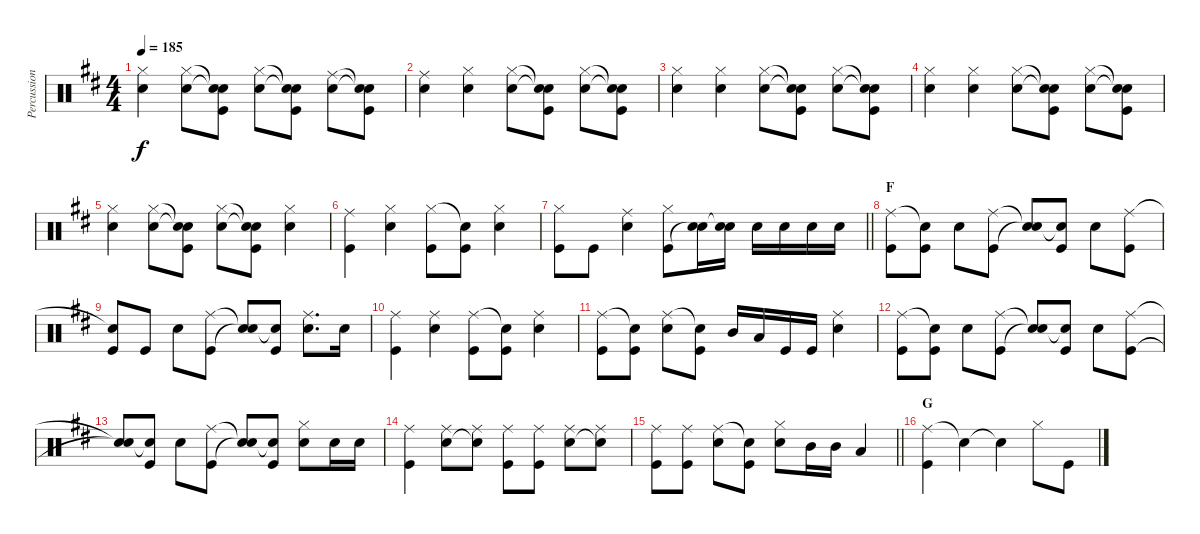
\track ("Percussion" "Percussion") {instrument percussion}
\staff {score}
\articulation defaults
\ts (4 4)
\tempo 185
\clef neutral
\ks d
("Hi-Hat (closed)" "Snare (hit) 2").4{dy f} ("Hi-Hat (closed)" "Snare (hit) 2").8 ("Snare (hit)"{t} "Snare (hit)"{t} "Kick (hit)").8 ("Hi-Hat (closed)" "Snare (hit) 2").8 ("Snare (hit)"{t} "Snare (hit)"{t} "Kick (hit)").8 ("Ride (middle)" "Snare (hit) 2").8 ("Snare (hit)"{t} "Snare (hit)"{t} "Kick (hit)").8 |
("Ride (middle)" "Snare (hit) 2").4 ("Hi-Hat (closed)" "Snare (hit) 2").4 ("Hi-Hat (closed)" "Snare (hit) 2").8 ("Snare (hit)"{t} "Snare (hit)"{t} "Kick (hit)").8 ("Hi-Hat (closed)" "Snare (hit) 2").8 ("Snare (hit)"{t} "Snare (hit)"{t} "Kick (hit)").8 |
("Hi-Hat (closed)" "Snare (hit) 2").4 ("Hi-Hat (closed)" "Snare (hit) 2").4 ("Hi-Hat (closed)" "Snare (hit) 2").8 ("Snare (hit)"{t} "Snare (hit)"{t} "Kick (hit)").8 ("Hi-Hat (closed)" "Snare (hit) 2").8 ("Snare (hit)"{t} "Snare (hit)"{t} "Kick (hit)").8 |
("Hi-Hat (closed)" "Snare (hit) 2").4 ("Hi-Hat (closed)" "Snare (hit) 2").4 ("Hi-Hat (closed)" "Snare (hit) 2").8 ("Snare (hit)"{t} "Snare (hit)"{t} "Kick (hit)").8 ("Hi-Hat (closed)" "Snare (hit) 2").8 ("Snare (hit)"{t} "Snare (hit)"{t} "Kick (hit)").8 |
("Hi-Hat (closed)" "Snare (hit) 2").4 ("Hi-Hat (closed)" "Snare (hit) 2").8 ("Snare (hit)"{t} "Snare (hit)"{t} "Kick (hit)").8 ("Hi-Hat (closed)" "Snare (hit) 2").8 ("Snare (hit)"{t} "Snare (hit)"{t} "Kick (hit)").8 ("Hi-Hat (closed)" "Snare (hit) 2").4 |
("Ride (middle)" "Kick (hit)").4 ("Hi-Hat (closed)" "Snare (hit) 2").4 ("Hi-Hat (closed)" "Kick (hit)").8 ("Snare (hit)"{t} "Kick (hit)").8 ("Hi-Hat (closed)" "Snare (hit) 2").4 |
\barLineRight lightlight
("Hi-Hat (closed)" "Kick (hit)").8 "Kick (hit)".8 ("Ride (middle)" "Snare (hit) 2").4 ("Hi-Hat (closed)" "Kick (hit)").8 ("Snare (hit) 2" "Snare (hit)"{t}).16 ("Snare (hit) 2" "Snare (hit)"{t}).16 "Snare (hit) 2".16 "Snare (hit) 2".16 "Snare (hit) 2".16 "Snare (hit) 2".16 |
\section ("" "F")
("Ride (middle)" "Kick (hit)").8 ("Snare (hit)"{t} "Kick (hit)").8 "Snare (hit) 2".8 ("Ride (middle)" "Kick (hit)").8 ("Snare (hit)"{t} "Snare (hit)"{t}).8 ("Snare (hit)"{t} "Kick (hit)").8 "Snare (hit) 2".8 ("Ride (middle)" "Kick (hit)").8 |
("Snare (hit)"{t} "Kick (hit)").8 "Kick (hit)".8 "Snare (hit) 2".8 ("Ride (middle)" "Kick (hit)").8 ("Snare (hit)"{t} "Snare (hit)"{t}).8 ("Snare (hit)"{t} "Kick (hit)").8 ("Ride (middle)" "Snare (hit) 2").8{d} "Snare (hit) 2".16 |
("Ride (middle)" "Kick (hit)").4 ("Ride (middle)" "Snare (hit) 2").4 ("Ride (middle)" "Kick (hit)").8 ("Snare (hit)"{t} "Kick (hit)").8 ("Ride (middle)" "Snare (hit) 2").4 |
("Ride (middle)" "Kick (hit)").8 ("Snare (hit)"{t} "Kick (hit)").8 ("Ride (middle)" "Snare (hit) 2").8 ("Snare (hit)"{t} "Kick (hit)").8 "Mid Tom (hit)".16 "Low Tom (hit)".16 "Kick (hit)".16 "Kick (hit)".16 ("Ride (middle)" "Snare (hit) 2").4 |
("Ride (middle)" "Kick (hit)").8 ("Snare (hit)"{t} "Kick (hit)").8 "Snare (hit) 2".8 ("Ride (middle)" "Kick (hit)").8 ("Snare (hit)"{t} "Snare (hit)"{t}).8 ("Snare (hit)"{t} "Kick (hit)").8 "Snare (hit) 2".8 ("Ride (middle)" "Kick (hit)").8 |
("Snare (hit)"{t} "Snare (hit)"{t}).8 ("Snare (hit)"{t} "Kick (hit)").8 "Snare (hit) 2".8 ("Ride (middle)" "Kick (hit)").8 ("Snare (hit)"{t} "Snare (hit)"{t}).8 ("Snare (hit)"{t} "Kick (hit)").8 ("Hi-Hat (closed)" "Snare (hit) 2").8 "Snare (hit) 2".16 "Snare (hit) 2".16 |
("Ride (middle)" "Kick (hit)").4 ("Ride (middle)" "Snare (hit) 2").8 ("Ride (middle)" "Snare (hit)"{t}).8 ("Ride (middle)" "Kick (hit)").8 ("Ride (middle)" "Kick (hit)").8 ("Ride (middle)" "Snare (hit) 2").8 ("Ride (middle)" "Snare (hit)"{t}).8 |
\barLineRight lightlight
("Ride (middle)" "Kick (hit)").8 ("Ride (middle)" "Kick (hit)").8 ("Ride (middle)" "Snare (hit) 2").8 ("Snare (hit)"{t} "Kick (hit)").8 ("Hi-Hat (closed)" "Snare (hit) 2").8 "Mid Tom (hit)".16 "Mid Tom (hit)".16 "Low Tom (hit)".4 |
\section ("" "G")
("Ride (middle)" "Kick (hit)").4 "Snare (hit)"{t}.4 "Snare (hit)"{t}.4 "Hi-Hat (closed)".8 "Kick (hit)".8
